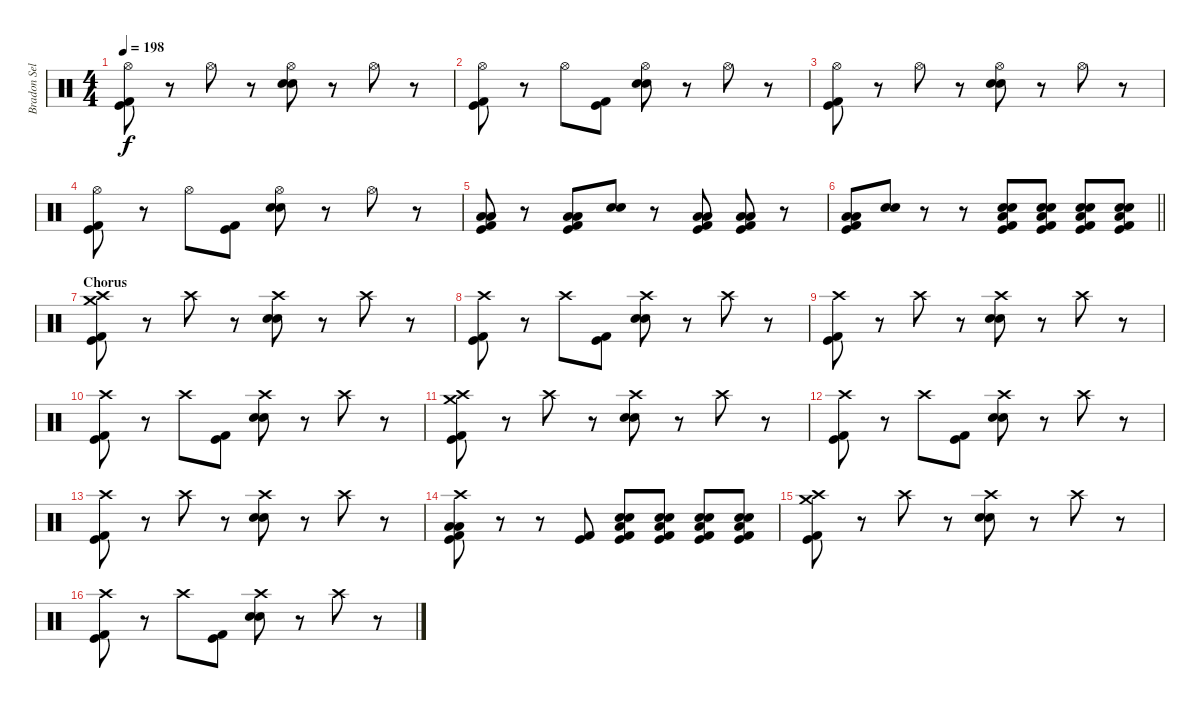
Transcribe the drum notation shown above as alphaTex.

\track ("Bradon Sellar" "Bradon Sel") {instrument percussion}
\staff {score}
\articulation defaults
\ts (4 4)
\tempo 198
\clef neutral
\ks c
("Hi-Hat (open)" "Kick (hit) 2" "Kick (hit)").8{dy f} r.8 "Hi-Hat (open)".8 r.8 ("Hi-Hat (open)" "Electric Snare (hit)" "Snare (hit) 2").8 r.8 "Hi-Hat (open)".8 r.8 |
("Hi-Hat (open)" "Kick (hit) 2" "Kick (hit)").8 r.8 "Hi-Hat (open)".8 ("Kick (hit) 2" "Kick (hit)").8 ("Hi-Hat (open)" "Electric Snare (hit)" "Snare (hit) 2").8 r.8 "Hi-Hat (open)".8 r.8 |
("Hi-Hat (open)" "Kick (hit) 2" "Kick (hit)").8 r.8 "Hi-Hat (open)".8 r.8 ("Hi-Hat (open)" "Electric Snare (hit)" "Snare (hit) 2").8 r.8 "Hi-Hat (open)".8 r.8 |
("Hi-Hat (open)" "Kick (hit) 2" "Kick (hit)").8 r.8 "Hi-Hat (open)".8 ("Kick (hit) 2" "Kick (hit)").8 ("Hi-Hat (open)" "Electric Snare (hit)" "Snare (hit) 2").8 r.8 "Hi-Hat (open)".8 r.8 |
("Low Floor Tom (hit)" "Low Floor Tom (hit)" "Kick (hit) 2" "Kick (hit)").8 r.8 ("Low Floor Tom (hit)" "Low Floor Tom (hit)" "Kick (hit) 2" "Kick (hit)").8 ("Snare (hit) 2" "Electric Snare (hit)").8 r.8 ("Low Floor Tom (hit)" "Low Floor Tom (hit)" "Kick (hit) 2" "Kick (hit)").8 ("Low Floor Tom (hit)" "Low Floor Tom (hit)" "Kick (hit) 2" "Kick (hit)").8 r.8 |
\barLineRight lightlight
("Low Floor Tom (hit)" "Low Floor Tom (hit)" "Kick (hit) 2" "Kick (hit)").8 ("Electric Snare (hit)" "Snare (hit) 2").8 r.8 r.8 ("Snare (hit) 2" "Electric Snare (hit)" "Low Floor Tom (hit)" "Kick (hit) 2" "Kick (hit)").8 ("Snare (hit) 2" "Electric Snare (hit)" "Low Floor Tom (hit)" "Kick (hit) 2" "Kick (hit)").8 ("Snare (hit) 2" "Electric Snare (hit)" "Low Floor Tom (hit)" "Kick (hit) 2" "Kick (hit)").8 ("Snare (hit) 2" "Electric Snare (hit)" "Low Floor Tom (hit)" "Kick (hit) 2" "Kick (hit)").8 |
\section ("" "Chorus ")
("Crash medium (hit)" "Crash high (hit)" "Kick (hit) 2" "Kick (hit)").8 r.8 "Crash high (hit)".8 r.8 ("Crash high (hit)" "Electric Snare (hit)" "Snare (hit) 2").8 r.8 "Crash high (hit)".8 r.8 |
("Crash high (hit)" "Kick (hit) 2" "Kick (hit)").8 r.8 "Crash high (hit)".8 ("Kick (hit) 2" "Kick (hit)").8 ("Crash high (hit)" "Electric Snare (hit)" "Snare (hit) 2").8 r.8 "Crash high (hit)".8 r.8 |
("Crash high (hit)" "Kick (hit) 2" "Kick (hit)").8 r.8 "Crash high (hit)".8 r.8 ("Crash high (hit)" "Electric Snare (hit)" "Snare (hit) 2").8 r.8 "Crash high (hit)".8 r.8 |
("Crash high (hit)" "Kick (hit) 2" "Kick (hit)").8 r.8 "Crash high (hit)".8 ("Kick (hit) 2" "Kick (hit)").8 ("Crash high (hit)" "Electric Snare (hit)" "Snare (hit) 2").8 r.8 "Crash high (hit)".8 r.8 |
("Crash medium (hit)" "Crash high (hit)" "Kick (hit) 2" "Kick (hit)").8 r.8 "Crash high (hit)".8 r.8 ("Crash high (hit)" "Electric Snare (hit)" "Snare (hit) 2").8 r.8 "Crash high (hit)".8 r.8 |
("Crash high (hit)" "Kick (hit) 2" "Kick (hit)").8 r.8 "Crash high (hit)".8 ("Kick (hit) 2" "Kick (hit)").8 ("Crash high (hit)" "Electric Snare (hit)" "Snare (hit) 2").8 r.8 "Crash high (hit)".8 r.8 |
("Crash high (hit)" "Kick (hit) 2" "Kick (hit)").8 r.8 "Crash high (hit)".8 r.8 ("Crash high (hit)" "Electric Snare (hit)" "Snare (hit) 2").8 r.8 "Crash high (hit)".8 r.8 |
("Crash high (hit)" "Low Floor Tom (hit)" "Low Floor Tom (hit)" "Kick (hit)" "Kick (hit) 2").8 r.8 r.8 ("Kick (hit) 2" "Kick (hit)").8 ("Snare (hit) 2" "Electric Snare (hit)" "Low Floor Tom (hit)" "Kick (hit) 2" "Kick (hit)").8 ("Snare (hit) 2" "Electric Snare (hit)" "Low Floor Tom (hit)" "Kick (hit) 2" "Kick (hit)").8 ("Snare (hit) 2" "Electric Snare (hit)" "Low Floor Tom (hit)" "Kick (hit) 2" "Kick (hit)").8 ("Snare (hit) 2" "Electric Snare (hit)" "Low Floor Tom (hit)" "Kick (hit) 2" "Kick (hit)").8 |
("Crash medium (hit)" "Crash high (hit)" "Kick (hit) 2" "Kick (hit)").8 r.8 "Crash high (hit)".8 r.8 ("Crash high (hit)" "Electric Snare (hit)" "Snare (hit) 2").8 r.8 "Crash high (hit)".8 r.8 |
("Crash high (hit)" "Kick (hit) 2" "Kick (hit)").8 r.8 "Crash high (hit)".8 ("Kick (hit) 2" "Kick (hit)").8 ("Crash high (hit)" "Electric Snare (hit)" "Snare (hit) 2").8 r.8 "Crash high (hit)".8 r.8
